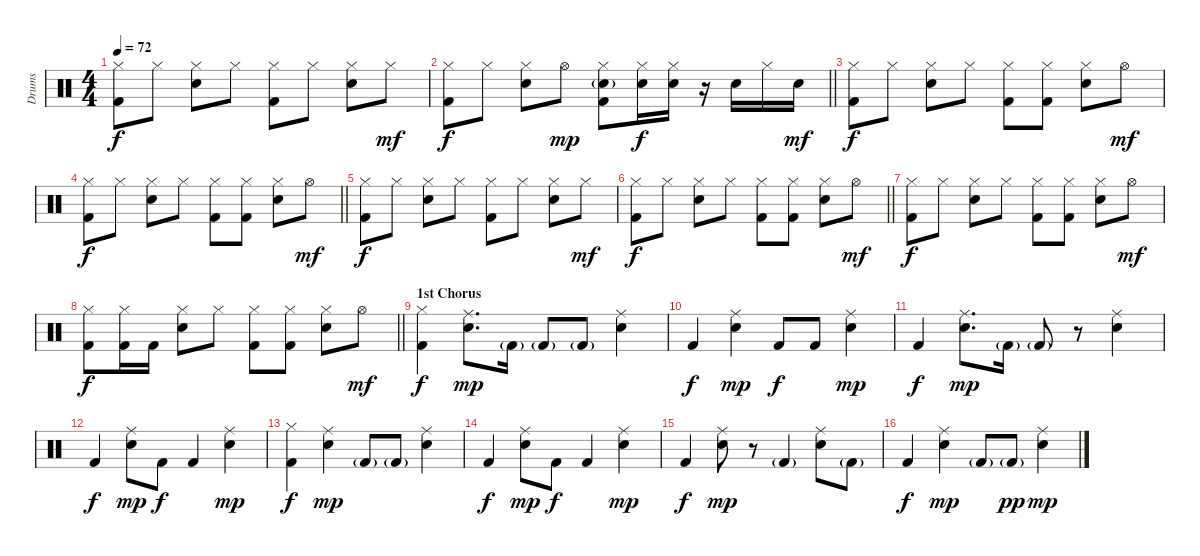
\track ("Drums" "Drums") {instrument percussion}
\staff {score}
\articulation defaults
\ts (4 4)
\tempo 72
\clef neutral
\ks c
("Hi-Hat (closed)" "Kick (hit) 2").8{dy f} "Hi-Hat (closed)".8 ("Hi-Hat (closed)" "Electric Snare (hit)").8 "Hi-Hat (closed)".8 ("Hi-Hat (closed)" "Kick (hit) 2").8 "Hi-Hat (closed)".8 ("Hi-Hat (closed)" "Electric Snare (hit)").8 "Hi-Hat (closed)".8{dy mf} |
\barLineRight lightlight
("Hi-Hat (closed)" "Kick (hit) 2").8{dy f} "Hi-Hat (closed)".8 ("Hi-Hat (closed)" "Electric Snare (hit)").8 "Hi-Hat (open)".8{dy mp} ("Hi-Hat (closed)" "Electric Snare (hit)"{g} "Kick (hit) 2").8 ("Hi-Hat (closed)" "Electric Snare (hit)").16{dy f} ("Hi-Hat (closed)" "Electric Snare (hit)").16 r.16 "Electric Snare (hit)".16 "Hi-Hat (closed)".16 "Electric Snare (hit)".16{dy mf} |
("Hi-Hat (closed)" "Kick (hit) 2").8{dy f} "Hi-Hat (closed)".8 ("Hi-Hat (closed)" "Electric Snare (hit)").8 "Hi-Hat (closed)".8 ("Hi-Hat (closed)" "Kick (hit) 2").8 ("Hi-Hat (closed)" "Kick (hit) 2").8 ("Hi-Hat (closed)" "Electric Snare (hit)").8 "Hi-Hat (open)".8{dy mf} |
\barLineRight lightlight
("Hi-Hat (closed)" "Kick (hit) 2").8{dy f} "Hi-Hat (closed)".8 ("Hi-Hat (closed)" "Electric Snare (hit)").8 "Hi-Hat (closed)".8 ("Hi-Hat (closed)" "Kick (hit) 2").8 ("Hi-Hat (closed)" "Kick (hit) 2").8 ("Hi-Hat (closed)" "Electric Snare (hit)").8 "Hi-Hat (open)".8{dy mf} |
("Hi-Hat (closed)" "Kick (hit) 2").8{dy f} "Hi-Hat (closed)".8 ("Hi-Hat (closed)" "Electric Snare (hit)").8 "Hi-Hat (closed)".8 ("Hi-Hat (closed)" "Kick (hit) 2").8 "Hi-Hat (closed)".8 ("Hi-Hat (closed)" "Electric Snare (hit)").8 "Hi-Hat (closed)".8{dy mf} |
\barLineRight lightlight
("Hi-Hat (closed)" "Kick (hit) 2").8{dy f} "Hi-Hat (closed)".8 ("Hi-Hat (closed)" "Electric Snare (hit)").8 "Hi-Hat (closed)".8 ("Hi-Hat (closed)" "Kick (hit) 2").8 ("Hi-Hat (closed)" "Kick (hit) 2").8 ("Hi-Hat (closed)" "Electric Snare (hit)").8 "Hi-Hat (open)".8{dy mf} |
("Hi-Hat (closed)" "Kick (hit) 2").8{dy f} "Hi-Hat (closed)".8 ("Hi-Hat (closed)" "Electric Snare (hit)").8 "Hi-Hat (closed)".8 ("Hi-Hat (closed)" "Kick (hit) 2").8 ("Hi-Hat (closed)" "Kick (hit) 2").8 ("Hi-Hat (closed)" "Electric Snare (hit)").8 "Hi-Hat (open)".8{dy mf} |
\barLineRight lightlight
("Hi-Hat (closed)" "Kick (hit) 2").8{dy f} ("Hi-Hat (closed)" "Kick (hit) 2").16 "Kick (hit) 2".16 ("Hi-Hat (closed)" "Electric Snare (hit)").8 "Hi-Hat (closed)".8 ("Hi-Hat (closed)" "Kick (hit) 2").8 ("Hi-Hat (closed)" "Kick (hit) 2").8 ("Hi-Hat (closed)" "Electric Snare (hit)").8 "Hi-Hat (open)".8{dy mf} |
\section ("" "1st Chorus")
("Hi-Hat (closed)" "Kick (hit) 2").4{dy f} ("Ride (middle)" "Electric Snare (hit)").8{d dy mp} "Kick (hit) 2"{g}.16 "Kick (hit) 2"{g}.8 "Kick (hit) 2"{g}.8 ("Ride (middle)" "Electric Snare (hit)").4 |
"Kick (hit) 2".4{dy f} ("Ride (middle)" "Electric Snare (hit)").4{dy mp} "Kick (hit) 2".8{dy f} "Kick (hit) 2".8 ("Ride (middle)" "Electric Snare (hit)").4{dy mp} |
"Kick (hit) 2".4{dy f} ("Ride (middle)" "Electric Snare (hit)").8{d dy mp} "Kick (hit) 2"{g}.16 "Kick (hit) 2"{g}.8 r.8 ("Ride (middle)" "Electric Snare (hit)").4 |
"Kick (hit) 2".4{dy f} ("Ride (middle)" "Electric Snare (hit)").8{dy mp} "Kick (hit) 2".8{dy f} "Kick (hit) 2".4 ("Ride (middle)" "Electric Snare (hit)").4{dy mp} |
("Hi-Hat (closed)" "Kick (hit) 2").4{dy f} ("Ride (middle)" "Electric Snare (hit)").4{dy mp} "Kick (hit) 2"{g}.8 "Kick (hit) 2"{g}.8 ("Ride (middle)" "Electric Snare (hit)").4 |
"Kick (hit) 2".4{dy f} ("Ride (middle)" "Electric Snare (hit)").8{dy mp} "Kick (hit) 2".8{dy f} "Kick (hit) 2".4 ("Ride (middle)" "Electric Snare (hit)").4{dy mp} |
"Kick (hit) 2".4{dy f} ("Ride (middle)" "Electric Snare (hit)").8{dy mp} r.8 "Kick (hit) 2"{g}.4 ("Ride (middle)" "Electric Snare (hit)").8 "Kick (hit) 2"{g}.8 |
"Kick (hit) 2".4{dy f} ("Ride (middle)" "Electric Snare (hit)").4{dy mp} "Kick (hit) 2"{g}.8 "Kick (hit) 2"{g}.8{dy pp} ("Ride (middle)" "Electric Snare (hit)").4{dy mp}
